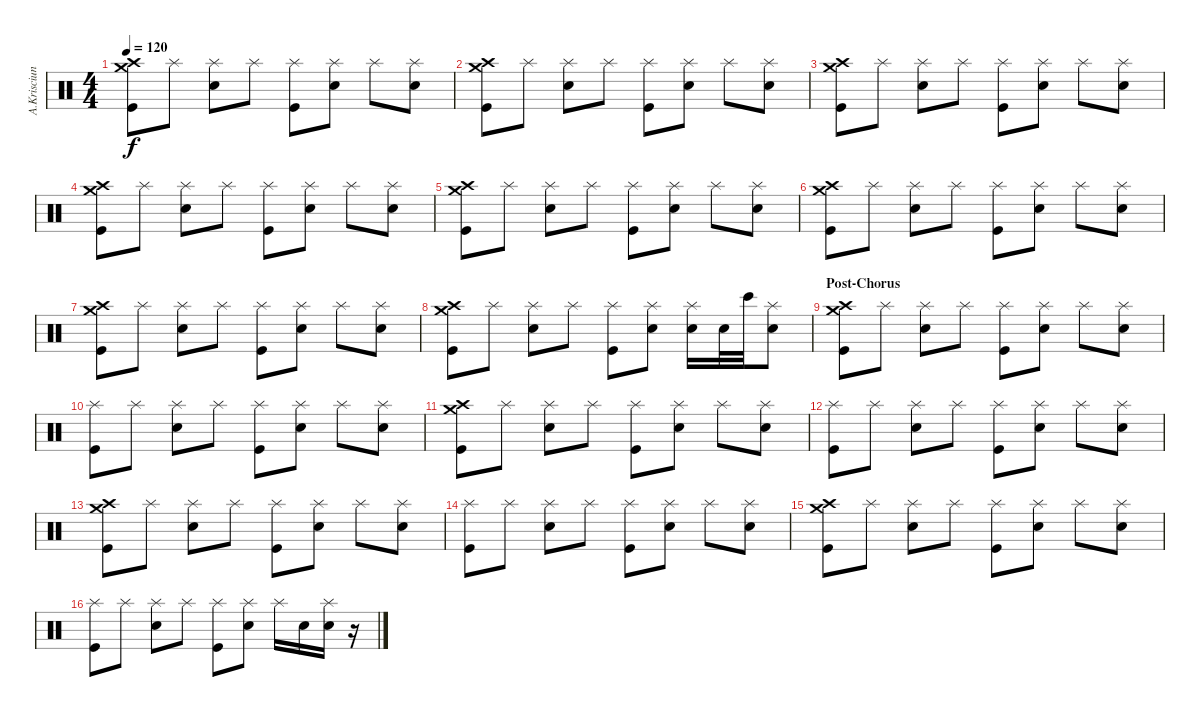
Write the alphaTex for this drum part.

\track ("A.Krisciunas" "A.Krisciun") {instrument percussion}
\staff {score}
\articulation defaults
\ts (4 4)
\tempo 120
\clef neutral
\ks c
("Crash medium (hit)" "Crash high (hit)" "Kick (hit)").8{dy f} "Splash (hit)".8 ("Splash (hit)" "Electric Snare (hit)").8 "Splash (hit)".8 ("Splash (hit)" "Kick (hit)").8 ("Splash (hit)" "Electric Snare (hit)").8 "Splash (hit)".8 ("Splash (hit)" "Electric Snare (hit)").8 |
("Crash medium (hit)" "Crash high (hit)" "Kick (hit)").8 "Splash (hit)".8 ("Splash (hit)" "Electric Snare (hit)").8 "Splash (hit)".8 ("Splash (hit)" "Kick (hit)").8 ("Splash (hit)" "Electric Snare (hit)").8 "Splash (hit)".8 ("Splash (hit)" "Electric Snare (hit)").8 |
("Crash medium (hit)" "Crash high (hit)" "Kick (hit)").8 "Splash (hit)".8 ("Splash (hit)" "Electric Snare (hit)").8 "Splash (hit)".8 ("Splash (hit)" "Kick (hit)").8 ("Splash (hit)" "Electric Snare (hit)").8 "Splash (hit)".8 ("Splash (hit)" "Electric Snare (hit)").8 |
("Crash medium (hit)" "Crash high (hit)" "Kick (hit)").8 "Splash (hit)".8 ("Splash (hit)" "Electric Snare (hit)").8 "Splash (hit)".8 ("Splash (hit)" "Kick (hit)").8 ("Splash (hit)" "Electric Snare (hit)").8 "Splash (hit)".8 ("Splash (hit)" "Electric Snare (hit)").8 |
("Crash medium (hit)" "Crash high (hit)" "Kick (hit)").8 "Splash (hit)".8 ("Splash (hit)" "Electric Snare (hit)").8 "Splash (hit)".8 ("Splash (hit)" "Kick (hit)").8 ("Splash (hit)" "Electric Snare (hit)").8 "Splash (hit)".8 ("Splash (hit)" "Electric Snare (hit)").8 |
("Crash medium (hit)" "Crash high (hit)" "Kick (hit)").8 "Splash (hit)".8 ("Splash (hit)" "Electric Snare (hit)").8 "Splash (hit)".8 ("Splash (hit)" "Kick (hit)").8 ("Splash (hit)" "Electric Snare (hit)").8 "Splash (hit)".8 ("Splash (hit)" "Electric Snare (hit)").8 |
("Crash medium (hit)" "Crash high (hit)" "Kick (hit)").8 "Splash (hit)".8 ("Splash (hit)" "Electric Snare (hit)").8 "Splash (hit)".8 ("Splash (hit)" "Kick (hit)").8 ("Splash (hit)" "Electric Snare (hit)").8 "Splash (hit)".8 ("Splash (hit)" "Electric Snare (hit)").8 |
("Crash medium (hit)" "Crash high (hit)" "Kick (hit)").8 "Splash (hit)".8 ("Splash (hit)" "Electric Snare (hit)").8 "Splash (hit)".8 ("Splash (hit)" "Kick (hit)").8 ("Splash (hit)" "Electric Snare (hit)").8 ("Splash (hit)" "Electric Snare (hit)").16 "Electric Snare (hit)".32 "Bongo High (hit)".32 ("Splash (hit)" "Electric Snare (hit)").8 |
\section ("" "Post-Chorus")
("Crash medium (hit)" "Crash high (hit)" "Kick (hit)").8 "Splash (hit)".8 ("Splash (hit)" "Electric Snare (hit)").8 "Splash (hit)".8 ("Splash (hit)" "Kick (hit)").8 ("Splash (hit)" "Electric Snare (hit)").8 "Splash (hit)".8 ("Splash (hit)" "Electric Snare (hit)").8 |
("Splash (hit)" "Kick (hit)").8 "Splash (hit)".8 ("Splash (hit)" "Electric Snare (hit)").8 "Splash (hit)".8 ("Splash (hit)" "Kick (hit)").8 ("Splash (hit)" "Electric Snare (hit)").8 "Splash (hit)".8 ("Splash (hit)" "Electric Snare (hit)").8 |
("Crash medium (hit)" "Crash high (hit)" "Kick (hit)").8 "Splash (hit)".8 ("Splash (hit)" "Electric Snare (hit)").8 "Splash (hit)".8 ("Splash (hit)" "Kick (hit)").8 ("Splash (hit)" "Electric Snare (hit)").8 "Splash (hit)".8 ("Splash (hit)" "Electric Snare (hit)").8 |
("Splash (hit)" "Kick (hit)").8 "Splash (hit)".8 ("Splash (hit)" "Electric Snare (hit)").8 "Splash (hit)".8 ("Splash (hit)" "Kick (hit)").8 ("Splash (hit)" "Electric Snare (hit)").8 "Splash (hit)".8 ("Splash (hit)" "Electric Snare (hit)").8 |
("Crash medium (hit)" "Crash high (hit)" "Kick (hit)").8 "Splash (hit)".8 ("Splash (hit)" "Electric Snare (hit)").8 "Splash (hit)".8 ("Splash (hit)" "Kick (hit)").8 ("Splash (hit)" "Electric Snare (hit)").8 "Splash (hit)".8 ("Splash (hit)" "Electric Snare (hit)").8 |
("Splash (hit)" "Kick (hit)").8 "Splash (hit)".8 ("Splash (hit)" "Electric Snare (hit)").8 "Splash (hit)".8 ("Splash (hit)" "Kick (hit)").8 ("Splash (hit)" "Electric Snare (hit)").8 "Splash (hit)".8 ("Splash (hit)" "Electric Snare (hit)").8 |
("Crash medium (hit)" "Crash high (hit)" "Kick (hit)").8 "Splash (hit)".8 ("Splash (hit)" "Electric Snare (hit)").8 "Splash (hit)".8 ("Splash (hit)" "Kick (hit)").8 ("Splash (hit)" "Electric Snare (hit)").8 "Splash (hit)".8 ("Splash (hit)" "Electric Snare (hit)").8 |
("Splash (hit)" "Kick (hit)").8 "Splash (hit)".8 ("Splash (hit)" "Electric Snare (hit)").8 "Splash (hit)".8 ("Splash (hit)" "Kick (hit)").8 ("Splash (hit)" "Electric Snare (hit)").8 "Splash (hit)".16 "Electric Snare (hit)".16 ("Splash (hit)" "Electric Snare (hit)").16 r.16
